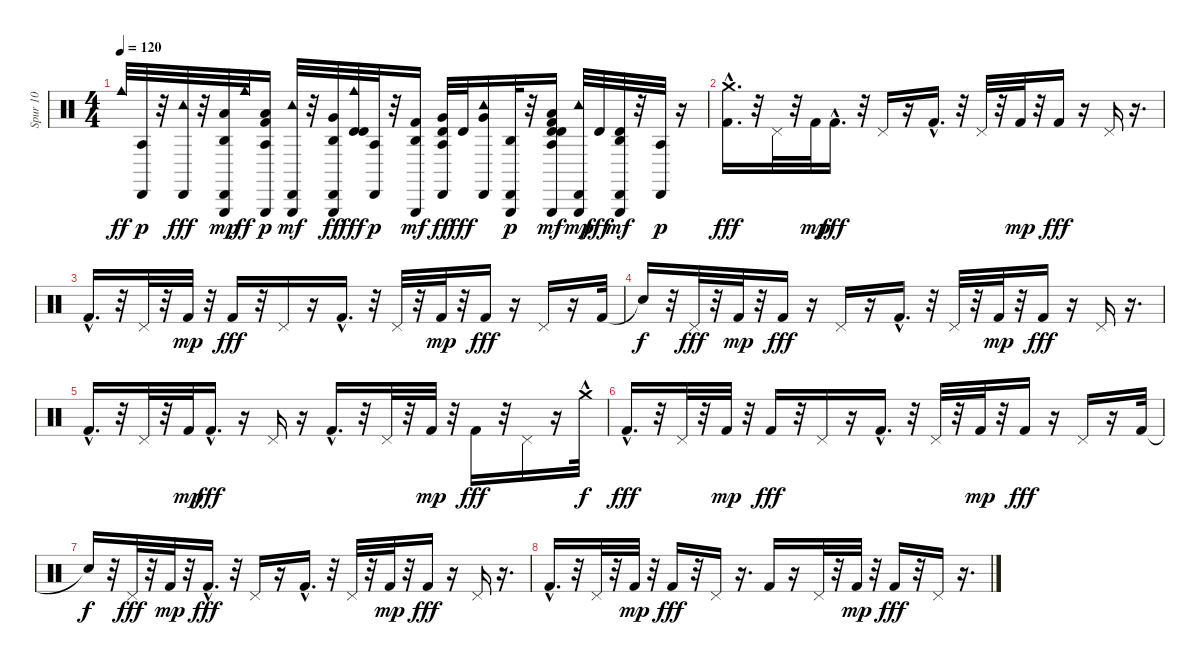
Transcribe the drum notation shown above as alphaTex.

\track ("Spur 10" "Spur 10") {instrument percussion}
\staff {score}
\articulation defaults
\ts (4 4)
\tempo 120
\clef neutral
\ks c "Cowbell medium (hit)".32{dy ff}
("Cabasa (hit)" "Agogo tow (hit)").32{dy p} r.32 ("Tambourine (hit)" "Cabasa (hit)").32{dy fff} r.32 ("Cabasa (hit)" "Triangle (hit)" "Low Tom (hit)" "Agogo high (hit)").32{dy mp} "Cowbell medium (hit)".32{dy ff} ("Agogo tow (hit)" "Kick (hit) 2" "Triangle (hit)" "Low Tom (hit)").16{dy p} ("Triangle (hit)" "Cabasa (hit)" "Tambourine (hit)").32{dy mf} r.32 ("Agogo high (hit)" "Cabasa (hit)" "Triangle (hit)" "Very Low Tom (hit)").32{dy ff} ("Timbale high (hit)" "Cowbell medium (hit)" "Timbale high (hit)").32{dy fff} ("Agogo tow (hit)" "Cabasa (hit)").32{dy p} r.32 ("Agogo high (hit)" "Kick (hit) 2" "Triangle (hit)").16{dy mf} ("Timbale high (hit)" "Agogo tow (hit)" "Cabasa (hit)" "Very Low Tom (hit)").32{dy ff} "Timbale high (hit)".32{dy fff} ("Tambourine (hit)" "Cabasa (hit)" "Very Low Tom (hit)").16 ("Agogo high (hit)" "Cabasa (hit)" "Triangle (hit)").32{dy p} r.32 ("Timbale high (hit)" "Timbale high (hit)" "Agogo tow (hit)" "Kick (hit) 2" "Triangle (hit)" "Low Floor Tom (hit)").16{dy mf} ("Tambourine (hit)" "Cabasa (hit)" "Triangle (hit)").32{dy mp} "Timbale high (hit)".32{dy fff} ("Timbale high (hit)" "Agogo high (hit)" "Cabasa (hit)" "Triangle (hit)").32{dy mf} r.32 ("Agogo tow (hit)" "Cabasa (hit)").32{dy p} r.16 |
("Crash medium (hit)"{hac} "Kick (hit) 2"{hac}).16{d dy fff} r.32 "Pedal Hi-Hat (hit)".32 r.32 "Kick (hit) 2".32{dy mp} "Kick (hit) 2"{hac}.16{d dy fff} r.32 "Pedal Hi-Hat (hit)".16 r.16 "Kick (hit) 2"{hac}.16{d} r.32 "Pedal Hi-Hat (hit)".32 r.32 "Kick (hit) 2".32{dy mp} r.32 "Kick (hit) 2".16{dy fff} r.16 "Pedal Hi-Hat (hit)".16 r.16{d} |
"Kick (hit) 2"{hac}.16{d} r.32 "Pedal Hi-Hat (hit)".32 r.32 "Kick (hit) 2".32{dy mp} r.32 "Kick (hit) 2".16{dy fff} r.32 "Pedal Hi-Hat (hit)".16 r.16 "Kick (hit) 2"{hac}.16{d} r.32 "Pedal Hi-Hat (hit)".32 r.32 "Kick (hit) 2".32{dy mp} r.32 "Kick (hit) 2".16{dy fff} r.16 "Pedal Hi-Hat (hit)".16 r.16 "Kick (hit) 2".32 |
"Snare (hit)"{t}.16{dy f} r.32 "Pedal Hi-Hat (hit)".32{dy fff} r.32 "Kick (hit) 2".32{dy mp} r.32 "Kick (hit) 2".16{dy fff} r.16 "Pedal Hi-Hat (hit)".16 r.16 "Kick (hit) 2"{hac}.16{d} r.32 "Pedal Hi-Hat (hit)".32 r.32 "Kick (hit) 2".32{dy mp} r.32 "Kick (hit) 2".16{dy fff} r.16 "Pedal Hi-Hat (hit)".16 r.16{d} |
"Kick (hit) 2"{hac}.16{d} r.32 "Pedal Hi-Hat (hit)".32 r.32 "Kick (hit) 2".32{dy mp} "Kick (hit) 2"{hac}.16{d dy fff} r.16 "Pedal Hi-Hat (hit)".16 r.16 "Kick (hit) 2"{hac}.16{d} r.32 "Pedal Hi-Hat (hit)".32 r.32 "Kick (hit) 2".32{dy mp} r.32 "Kick (hit) 2".16{dy fff} r.32 "Pedal Hi-Hat (hit)".16 r.16 "Crash medium (hit)"{hac}.32{dy f} |
"Kick (hit) 2"{hac}.16{d dy fff} r.32 "Pedal Hi-Hat (hit)".32 r.32 "Kick (hit) 2".32{dy mp} r.32 "Kick (hit) 2".16{dy fff} r.32 "Pedal Hi-Hat (hit)".16 r.16 "Kick (hit) 2"{hac}.16{d} r.32 "Pedal Hi-Hat (hit)".32 r.32 "Kick (hit) 2".32{dy mp} r.32 "Kick (hit) 2".16{dy fff} r.16 "Pedal Hi-Hat (hit)".16 r.16 "Kick (hit) 2".32 |
"Snare (hit)"{t}.16{dy f} r.32 "Pedal Hi-Hat (hit)".32{dy fff} r.32 "Kick (hit) 2".32{dy mp} r.32 "Kick (hit) 2"{hac}.16{d dy fff} r.32 "Pedal Hi-Hat (hit)".16 r.16 "Kick (hit) 2"{hac}.16{d} r.32 "Pedal Hi-Hat (hit)".32 r.32 "Kick (hit) 2".32{dy mp} r.32 "Kick (hit) 2".16{dy fff} r.16 "Pedal Hi-Hat (hit)".16 r.16{d} |
"Kick (hit) 2"{hac}.16{d} r.32 "Pedal Hi-Hat (hit)".32 r.32 "Kick (hit) 2".32{dy mp} r.32 "Kick (hit) 2".16{dy fff} r.32 "Pedal Hi-Hat (hit)".16 r.16{d} "Kick (hit) 2".16 r.16 "Pedal Hi-Hat (hit)".32 r.32 "Kick (hit) 2".32{dy mp} r.32 "Kick (hit) 2".16{dy fff} r.32 "Pedal Hi-Hat (hit)".16 r.16{d}
